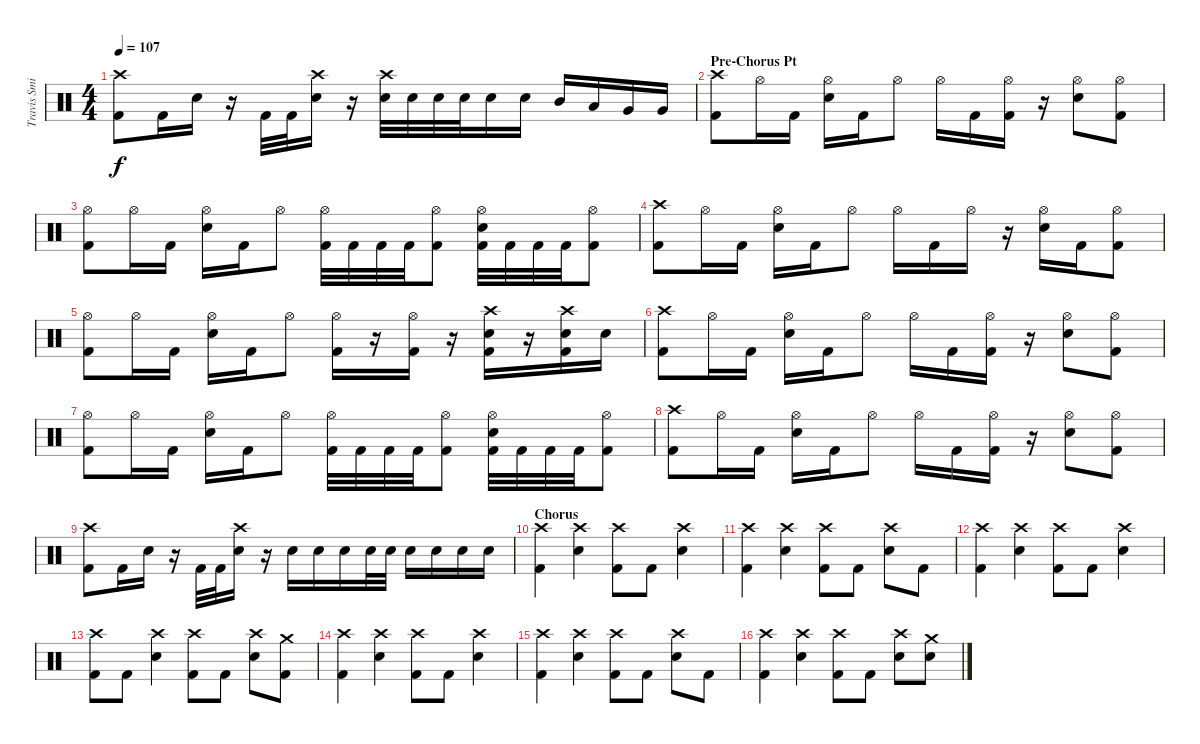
\track ("Travis Smith" "Travis Smi") {instrument percussion}
\staff {score}
\articulation defaults
\ts (4 4)
\tempo 107
\clef neutral
\ks c
("Crash high (hit)" "Kick (hit) 2").8{dy f} "Kick (hit) 2".16 "Electric Snare (hit)".16 r.16 "Kick (hit) 2".32 "Kick (hit) 2".32 ("Crash high (hit)" "Electric Snare (hit)").16 r.16 ("Crash high (hit)" "Electric Snare (hit)").32 "Electric Snare (hit)".32 "Electric Snare (hit)".32 "Electric Snare (hit)".32 "Electric Snare (hit)".16 "Electric Snare (hit)".16 "Mid Tom (hit)".16 "Low Tom (hit)".16 "Very Low Tom (hit)".16 "Very Low Tom (hit)".16 |
\section ("" "Pre-Chorus Pt")
("Crash high (hit)" "Kick (hit) 2").8 "Hi-Hat (open)".16 "Kick (hit) 2".16 ("Hi-Hat (open)" "Electric Snare (hit)").16 "Kick (hit) 2".16 "Hi-Hat (open)".8 "Hi-Hat (open)".16 "Kick (hit) 2".16 ("Hi-Hat (open)" "Kick (hit) 2").16 r.16 ("Hi-Hat (open)" "Electric Snare (hit)").8 ("Hi-Hat (open)" "Kick (hit) 2").8 |
("Hi-Hat (open)" "Kick (hit) 2").8 "Hi-Hat (open)".16 "Kick (hit) 2".16 ("Hi-Hat (open)" "Electric Snare (hit)").16 "Kick (hit) 2".16 "Hi-Hat (open)".8 ("Hi-Hat (open)" "Kick (hit) 2").32 "Kick (hit) 2".32 "Kick (hit) 2".32 "Kick (hit) 2".32 ("Hi-Hat (open)" "Kick (hit) 2").8 ("Hi-Hat (open)" "Electric Snare (hit)" "Kick (hit) 2").32 "Kick (hit) 2".32 "Kick (hit) 2".32 "Kick (hit) 2".32 ("Hi-Hat (open)" "Kick (hit) 2").8 |
("Crash high (hit)" "Kick (hit) 2").8 "Hi-Hat (open)".16 "Kick (hit) 2".16 ("Hi-Hat (open)" "Electric Snare (hit)").16 "Kick (hit) 2".16 "Hi-Hat (open)".8 "Hi-Hat (open)".16 "Kick (hit) 2".16 "Hi-Hat (open)".16 r.16 ("Hi-Hat (open)" "Electric Snare (hit)").16 "Kick (hit) 2".16 ("Hi-Hat (open)" "Kick (hit) 2").8 |
("Hi-Hat (open)" "Kick (hit) 2").8 "Hi-Hat (open)".16 "Kick (hit) 2".16 ("Hi-Hat (open)" "Electric Snare (hit)").16 "Kick (hit) 2".16 "Hi-Hat (open)".8 ("Hi-Hat (open)" "Kick (hit) 2").16 r.16 ("Hi-Hat (open)" "Kick (hit) 2").16 r.16 ("Crash high (hit)" "Electric Snare (hit)" "Kick (hit) 2").16 r.16 ("Crash high (hit)" "Electric Snare (hit)" "Kick (hit) 2").16 "Electric Snare (hit)".16 |
("Crash high (hit)" "Kick (hit) 2").8 "Hi-Hat (open)".16 "Kick (hit) 2".16 ("Hi-Hat (open)" "Electric Snare (hit)").16 "Kick (hit) 2".16 "Hi-Hat (open)".8 "Hi-Hat (open)".16 "Kick (hit) 2".16 ("Hi-Hat (open)" "Kick (hit) 2").16 r.16 ("Hi-Hat (open)" "Electric Snare (hit)").8 ("Hi-Hat (open)" "Kick (hit) 2").8 |
("Hi-Hat (open)" "Kick (hit) 2").8 "Hi-Hat (open)".16 "Kick (hit) 2".16 ("Hi-Hat (open)" "Electric Snare (hit)").16 "Kick (hit) 2".16 "Hi-Hat (open)".8 ("Hi-Hat (open)" "Kick (hit) 2").32 "Kick (hit) 2".32 "Kick (hit) 2".32 "Kick (hit) 2".32 ("Hi-Hat (open)" "Kick (hit) 2").8 ("Hi-Hat (open)" "Electric Snare (hit)" "Kick (hit) 2").32 "Kick (hit) 2".32 "Kick (hit) 2".32 "Kick (hit) 2".32 ("Hi-Hat (open)" "Kick (hit) 2").8 |
("Crash high (hit)" "Kick (hit) 2").8 "Hi-Hat (open)".16 "Kick (hit) 2".16 ("Hi-Hat (open)" "Electric Snare (hit)").16 "Kick (hit) 2".16 "Hi-Hat (open)".8 "Hi-Hat (open)".16 "Kick (hit) 2".16 ("Hi-Hat (open)" "Kick (hit) 2").16 r.16 ("Hi-Hat (open)" "Electric Snare (hit)").8 ("Hi-Hat (open)" "Kick (hit) 2").8 |
("Crash high (hit)" "Kick (hit) 2").8 "Kick (hit) 2".16 "Electric Snare (hit)".16 r.16 "Kick (hit) 2".32 "Kick (hit) 2".32 ("Crash high (hit)" "Electric Snare (hit)").16 r.16 "Electric Snare (hit)".16 "Electric Snare (hit)".16 "Electric Snare (hit)".16 "Electric Snare (hit)".32 "Electric Snare (hit)".32 "Electric Snare (hit)".16 "Electric Snare (hit)".16 "Electric Snare (hit)".16 "Electric Snare (hit)".16 |
\section ("" "Chorus")
("Crash high (hit)" "Kick (hit) 2").4 ("Crash high (hit)" "Electric Snare (hit)").4 ("Crash high (hit)" "Kick (hit) 2").8 "Kick (hit) 2".8 ("Crash high (hit)" "Electric Snare (hit)").4 |
("Crash high (hit)" "Kick (hit) 2").4 ("Crash high (hit)" "Electric Snare (hit)").4 ("Crash high (hit)" "Kick (hit) 2").8 "Kick (hit) 2".8 ("Crash high (hit)" "Electric Snare (hit)").8 "Kick (hit) 2".8 |
("Crash high (hit)" "Kick (hit) 2").4 ("Crash high (hit)" "Electric Snare (hit)").4 ("Crash high (hit)" "Kick (hit) 2").8 "Kick (hit) 2".8 ("Crash high (hit)" "Electric Snare (hit)").4 |
("Crash high (hit)" "Kick (hit) 2").8 "Kick (hit) 2".8 ("Crash high (hit)" "Electric Snare (hit)").4 ("Crash high (hit)" "Kick (hit) 2").8 "Kick (hit) 2".8 ("Crash high (hit)" "Electric Snare (hit)").8 ("Crash medium (hit)" "Kick (hit) 2").8 |
("Crash high (hit)" "Kick (hit) 2").4 ("Crash high (hit)" "Electric Snare (hit)").4 ("Crash high (hit)" "Kick (hit) 2").8 "Kick (hit) 2".8 ("Crash high (hit)" "Electric Snare (hit)").4 |
("Crash high (hit)" "Kick (hit) 2").4 ("Crash high (hit)" "Electric Snare (hit)").4 ("Crash high (hit)" "Kick (hit) 2").8 "Kick (hit) 2".8 ("Crash high (hit)" "Electric Snare (hit)").8 "Kick (hit) 2".8 |
("Crash high (hit)" "Kick (hit) 2").4 ("Crash high (hit)" "Electric Snare (hit)").4 ("Crash high (hit)" "Kick (hit) 2").8 "Kick (hit) 2".8 ("Crash high (hit)" "Electric Snare (hit)").8 ("Crash medium (hit)" "Electric Snare (hit)").8
